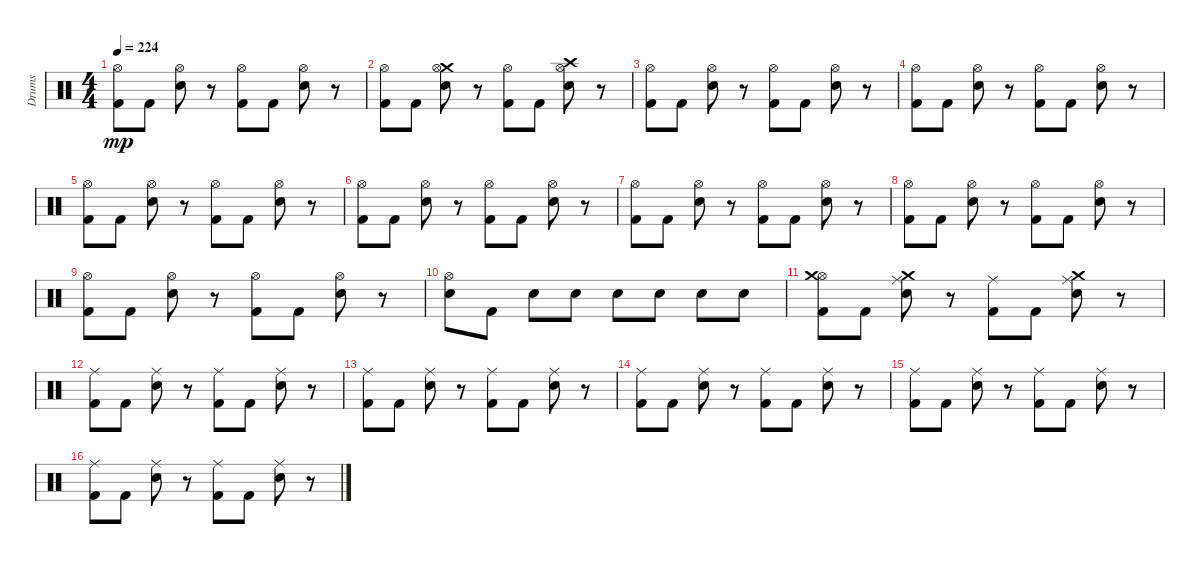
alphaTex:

\track ("Drums" "Drums") {instrument percussion}
\staff {score}
\articulation defaults
\ts (4 4)
\tempo 224
\clef neutral
\ks c
("Hi-Hat (open)" "Kick (hit) 2").8{dy mp} "Kick (hit) 2".8 ("Electric Snare (hit)" "Hi-Hat (open)").8 r.8 ("Hi-Hat (open)" "Kick (hit) 2").8 "Kick (hit) 2".8 ("Electric Snare (hit)" "Hi-Hat (open)").8 r.8 |
("Hi-Hat (open)" "Kick (hit) 2").8 "Kick (hit) 2".8 ("Crash medium (hit)" "Hi-Hat (open)" "Electric Snare (hit)").8 r.8 ("Hi-Hat (open)" "Kick (hit) 2").8 "Kick (hit) 2".8 ("Hi-Hat (open)" "Crash high (hit)" "Electric Snare (hit)").8 r.8 |
("Hi-Hat (open)" "Kick (hit) 2").8 "Kick (hit) 2".8 ("Electric Snare (hit)" "Hi-Hat (open)").8 r.8 ("Kick (hit) 2" "Hi-Hat (open)").8 "Kick (hit) 2".8 ("Electric Snare (hit)" "Hi-Hat (open)").8 r.8 |
("Hi-Hat (open)" "Kick (hit) 2").8 "Kick (hit) 2".8 ("Electric Snare (hit)" "Hi-Hat (open)").8 r.8 ("Kick (hit) 2" "Hi-Hat (open)").8 "Kick (hit) 2".8 ("Electric Snare (hit)" "Hi-Hat (open)").8 r.8 |
("Kick (hit) 2" "Hi-Hat (open)").8 "Kick (hit) 2".8 ("Hi-Hat (open)" "Electric Snare (hit)").8 r.8 ("Kick (hit) 2" "Hi-Hat (open)").8 "Kick (hit) 2".8 ("Hi-Hat (open)" "Electric Snare (hit)").8 r.8 |
("Hi-Hat (open)" "Kick (hit) 2").8 "Kick (hit) 2".8 ("Hi-Hat (open)" "Electric Snare (hit)").8 r.8 ("Hi-Hat (open)" "Kick (hit) 2").8 "Kick (hit) 2".8 ("Hi-Hat (open)" "Electric Snare (hit)").8 r.8 |
("Hi-Hat (open)" "Kick (hit) 2").8 "Kick (hit) 2".8 ("Hi-Hat (open)" "Electric Snare (hit)").8 r.8 ("Hi-Hat (open)" "Kick (hit) 2").8 "Kick (hit) 2".8 ("Hi-Hat (open)" "Electric Snare (hit)").8 r.8 |
("Kick (hit) 2" "Hi-Hat (open)").8 "Kick (hit) 2".8 ("Electric Snare (hit)" "Hi-Hat (open)").8 r.8 ("Kick (hit) 2" "Hi-Hat (open)").8 "Kick (hit) 2".8 ("Hi-Hat (open)" "Electric Snare (hit)").8 r.8 |
("Kick (hit) 2" "Hi-Hat (open)").8 "Kick (hit) 2".8 ("Hi-Hat (open)" "Electric Snare (hit)").8 r.8 ("Hi-Hat (open)" "Kick (hit) 2").8 "Kick (hit) 2".8 ("Electric Snare (hit)" "Hi-Hat (open)").8 r.8 |
("Electric Snare (hit)" "Hi-Hat (open)").8 "Kick (hit) 2".8 "Electric Snare (hit)".8 "Electric Snare (hit)".8 "Electric Snare (hit)".8 "Electric Snare (hit)".8 "Electric Snare (hit)".8 "Electric Snare (hit)".8 |
("Hi-Hat (open)" "Kick (hit) 2" "Crash medium (hit)").8 "Kick (hit) 2".8 ("Crash medium (hit)" "Ride (middle)" "Electric Snare (hit)").8 r.8 ("Ride (middle)" "Kick (hit) 2").8 "Kick (hit) 2".8 ("Electric Snare (hit)" "Crash medium (hit)" "Ride (middle)").8 r.8 |
("Ride (middle)" "Kick (hit) 2").8 "Kick (hit) 2".8 ("Ride (middle)" "Electric Snare (hit)").8 r.8 ("Ride (middle)" "Kick (hit) 2").8 "Kick (hit) 2".8 ("Electric Snare (hit)" "Ride (middle)").8 r.8 |
("Kick (hit) 2" "Ride (middle)").8 "Kick (hit) 2".8 ("Electric Snare (hit)" "Ride (middle)").8 r.8 ("Ride (middle)" "Kick (hit) 2").8 "Kick (hit) 2".8 ("Electric Snare (hit)" "Ride (middle)").8 r.8 |
("Kick (hit) 2" "Ride (middle)").8 "Kick (hit) 2".8 ("Ride (middle)" "Electric Snare (hit)").8 r.8 ("Ride (middle)" "Kick (hit) 2").8 "Kick (hit) 2".8 ("Electric Snare (hit)" "Ride (middle)").8 r.8 |
("Ride (middle)" "Kick (hit) 2").8 "Kick (hit) 2".8 ("Ride (middle)" "Electric Snare (hit)").8 r.8 ("Kick (hit) 2" "Ride (middle)").8 "Kick (hit) 2".8 ("Electric Snare (hit)" "Ride (middle)").8 r.8 |
("Kick (hit) 2" "Ride (middle)").8 "Kick (hit) 2".8 ("Electric Snare (hit)" "Ride (middle)").8 r.8 ("Kick (hit) 2" "Ride (middle)").8 "Kick (hit) 2".8 ("Ride (middle)" "Electric Snare (hit)").8 r.8
